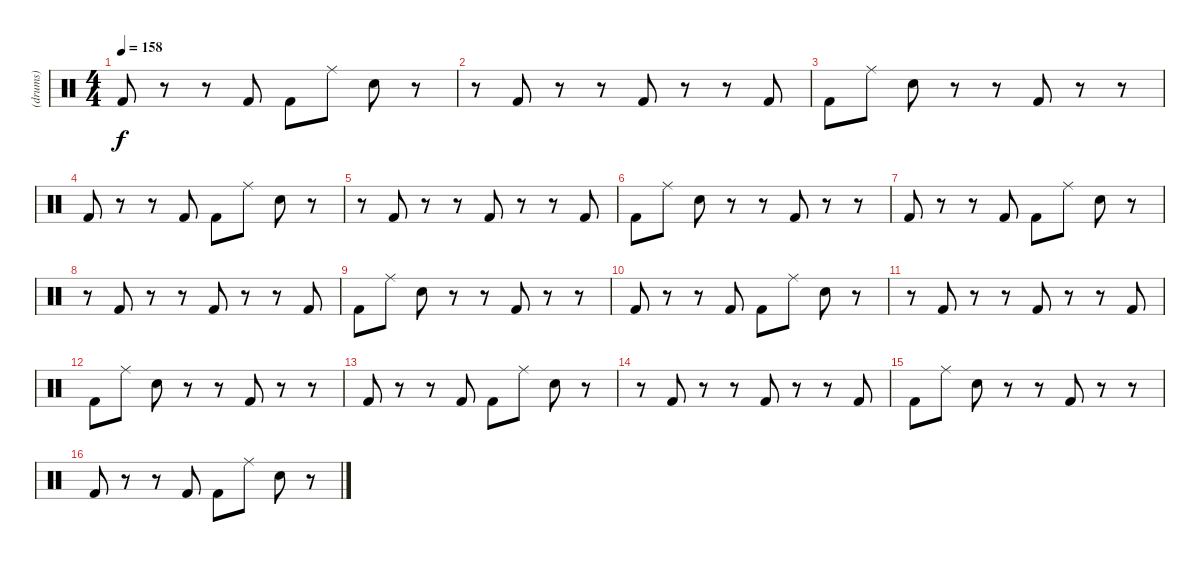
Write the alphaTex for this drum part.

\track ("(drums)" "(drums)") {instrument percussion}
\staff {score}
\articulation defaults
\ts (4 4)
\tempo 158
\clef neutral
\ks c "Kick (hit) 2".8{dy f}
r.8 r.8 "Kick (hit) 2".8 "Kick (hit) 2".8 "Ride (middle)".8 "Snare (hit) 2".8 r.8 |
r.8 "Kick (hit) 2".8 r.8 r.8 "Kick (hit) 2".8 r.8 r.8 "Kick (hit) 2".8 |
"Kick (hit) 2".8 "Ride (middle)".8 "Snare (hit) 2".8 r.8 r.8 "Kick (hit) 2".8 r.8 r.8 |
"Kick (hit) 2".8 r.8 r.8 "Kick (hit) 2".8 "Kick (hit) 2".8 "Ride (middle)".8 "Snare (hit) 2".8 r.8 |
r.8 "Kick (hit) 2".8 r.8 r.8 "Kick (hit) 2".8 r.8 r.8 "Kick (hit) 2".8 |
"Kick (hit) 2".8 "Ride (middle)".8 "Snare (hit) 2".8 r.8 r.8 "Kick (hit) 2".8 r.8 r.8 |
"Kick (hit) 2".8 r.8 r.8 "Kick (hit) 2".8 "Kick (hit) 2".8 "Ride (middle)".8 "Snare (hit) 2".8 r.8 |
r.8 "Kick (hit) 2".8 r.8 r.8 "Kick (hit) 2".8 r.8 r.8 "Kick (hit) 2".8 |
"Kick (hit) 2".8 "Ride (middle)".8 "Snare (hit) 2".8 r.8 r.8 "Kick (hit) 2".8 r.8 r.8 |
"Kick (hit) 2".8 r.8 r.8 "Kick (hit) 2".8 "Kick (hit) 2".8 "Ride (middle)".8 "Snare (hit) 2".8 r.8 |
r.8 "Kick (hit) 2".8 r.8 r.8 "Kick (hit) 2".8 r.8 r.8 "Kick (hit) 2".8 |
"Kick (hit) 2".8 "Ride (middle)".8 "Snare (hit) 2".8 r.8 r.8 "Kick (hit) 2".8 r.8 r.8 |
"Kick (hit) 2".8 r.8 r.8 "Kick (hit) 2".8 "Kick (hit) 2".8 "Ride (middle)".8 "Snare (hit) 2".8 r.8 |
r.8 "Kick (hit) 2".8 r.8 r.8 "Kick (hit) 2".8 r.8 r.8 "Kick (hit) 2".8 |
"Kick (hit) 2".8 "Ride (middle)".8 "Snare (hit) 2".8 r.8 r.8 "Kick (hit) 2".8 r.8 r.8 |
"Kick (hit) 2".8 r.8 r.8 "Kick (hit) 2".8 "Kick (hit) 2".8 "Ride (middle)".8 "Snare (hit) 2".8 r.8
